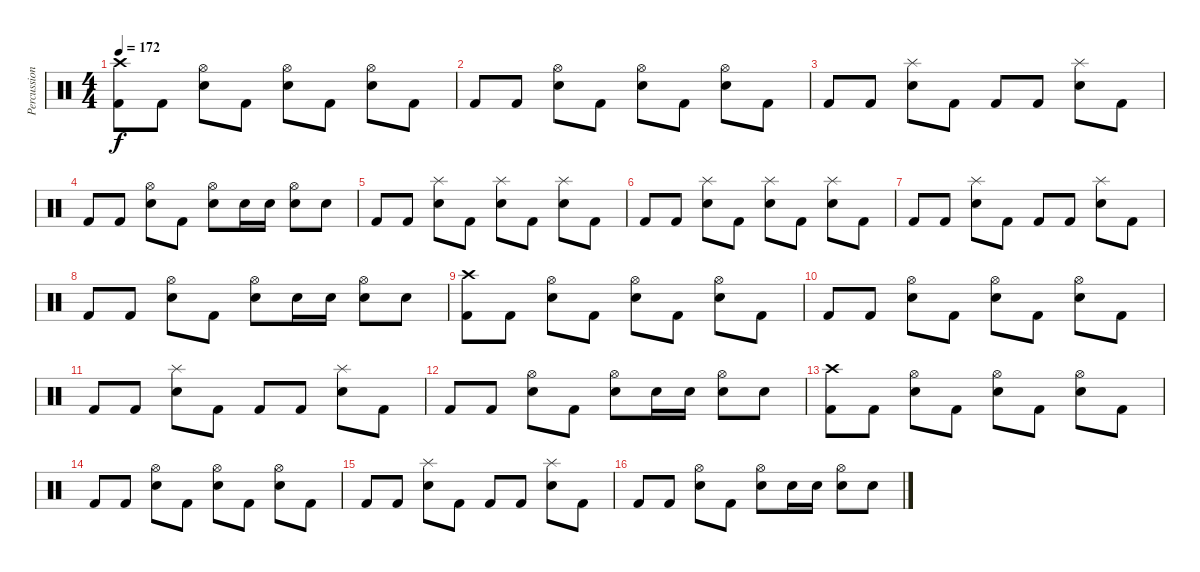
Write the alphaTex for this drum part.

\track ("Percussion" "Percussion") {instrument percussion}
\staff {score}
\articulation defaults
\ts (4 4)
\tempo 172
\clef neutral
\ks c
("Crash high (hit)" "Kick (hit) 2").8{dy f} "Kick (hit) 2".8 ("Hi-Hat (open)" "Electric Snare (hit)").8 "Kick (hit) 2".8 ("Hi-Hat (open)" "Electric Snare (hit)").8 "Kick (hit) 2".8 ("Hi-Hat (open)" "Electric Snare (hit)").8 "Kick (hit) 2".8 |
"Kick (hit) 2".8 "Kick (hit) 2".8 ("Hi-Hat (open)" "Electric Snare (hit)").8 "Kick (hit) 2".8 ("Hi-Hat (open)" "Electric Snare (hit)").8 "Kick (hit) 2".8 ("Hi-Hat (open)" "Electric Snare (hit)").8 "Kick (hit) 2".8 |
"Kick (hit) 2".8 "Kick (hit) 2".8 ("Splash (hit)" "Electric Snare (hit)").8 "Kick (hit) 2".8 "Kick (hit) 2".8 "Kick (hit) 2".8 ("Splash (hit)" "Electric Snare (hit)").8 "Kick (hit) 2".8 |
"Kick (hit) 2".8 "Kick (hit) 2".8 ("Hi-Hat (open)" "Electric Snare (hit)").8 "Kick (hit) 2".8 ("Hi-Hat (open)" "Electric Snare (hit)").8 "Electric Snare (hit)".16 "Electric Snare (hit)".16 ("Hi-Hat (open)" "Electric Snare (hit)").8 "Electric Snare (hit)".8 |
"Kick (hit) 2".8 "Kick (hit) 2".8 ("Splash (hit)" "Electric Snare (hit)").8 "Kick (hit) 2".8 ("Splash (hit)" "Electric Snare (hit)").8 "Kick (hit) 2".8 ("Splash (hit)" "Electric Snare (hit)").8 "Kick (hit) 2".8 |
"Kick (hit) 2".8 "Kick (hit) 2".8 ("Splash (hit)" "Electric Snare (hit)").8 "Kick (hit) 2".8 ("Splash (hit)" "Electric Snare (hit)").8 "Kick (hit) 2".8 ("Splash (hit)" "Electric Snare (hit)").8 "Kick (hit) 2".8 |
"Kick (hit) 2".8 "Kick (hit) 2".8 ("Splash (hit)" "Electric Snare (hit)").8 "Kick (hit) 2".8 "Kick (hit) 2".8 "Kick (hit) 2".8 ("Splash (hit)" "Electric Snare (hit)").8 "Kick (hit) 2".8 |
"Kick (hit) 2".8 "Kick (hit) 2".8 ("Hi-Hat (open)" "Electric Snare (hit)").8 "Kick (hit) 2".8 ("Hi-Hat (open)" "Electric Snare (hit)").8 "Electric Snare (hit)".16 "Electric Snare (hit)".16 ("Hi-Hat (open)" "Electric Snare (hit)").8 "Electric Snare (hit)".8 |
("Crash high (hit)" "Kick (hit) 2").8 "Kick (hit) 2".8 ("Hi-Hat (open)" "Electric Snare (hit)").8 "Kick (hit) 2".8 ("Hi-Hat (open)" "Electric Snare (hit)").8 "Kick (hit) 2".8 ("Hi-Hat (open)" "Electric Snare (hit)").8 "Kick (hit) 2".8 |
"Kick (hit) 2".8 "Kick (hit) 2".8 ("Hi-Hat (open)" "Electric Snare (hit)").8 "Kick (hit) 2".8 ("Hi-Hat (open)" "Electric Snare (hit)").8 "Kick (hit) 2".8 ("Hi-Hat (open)" "Electric Snare (hit)").8 "Kick (hit) 2".8 |
"Kick (hit) 2".8 "Kick (hit) 2".8 ("Splash (hit)" "Electric Snare (hit)").8 "Kick (hit) 2".8 "Kick (hit) 2".8 "Kick (hit) 2".8 ("Splash (hit)" "Electric Snare (hit)").8 "Kick (hit) 2".8 |
"Kick (hit) 2".8 "Kick (hit) 2".8 ("Hi-Hat (open)" "Electric Snare (hit)").8 "Kick (hit) 2".8 ("Hi-Hat (open)" "Electric Snare (hit)").8 "Electric Snare (hit)".16 "Electric Snare (hit)".16 ("Hi-Hat (open)" "Electric Snare (hit)").8 "Electric Snare (hit)".8 |
("Crash high (hit)" "Kick (hit) 2").8 "Kick (hit) 2".8 ("Hi-Hat (open)" "Electric Snare (hit)").8 "Kick (hit) 2".8 ("Hi-Hat (open)" "Electric Snare (hit)").8 "Kick (hit) 2".8 ("Hi-Hat (open)" "Electric Snare (hit)").8 "Kick (hit) 2".8 |
"Kick (hit) 2".8 "Kick (hit) 2".8 ("Hi-Hat (open)" "Electric Snare (hit)").8 "Kick (hit) 2".8 ("Hi-Hat (open)" "Electric Snare (hit)").8 "Kick (hit) 2".8 ("Hi-Hat (open)" "Electric Snare (hit)").8 "Kick (hit) 2".8 |
"Kick (hit) 2".8 "Kick (hit) 2".8 ("Splash (hit)" "Electric Snare (hit)").8 "Kick (hit) 2".8 "Kick (hit) 2".8 "Kick (hit) 2".8 ("Splash (hit)" "Electric Snare (hit)").8 "Kick (hit) 2".8 |
"Kick (hit) 2".8 "Kick (hit) 2".8 ("Hi-Hat (open)" "Electric Snare (hit)").8 "Kick (hit) 2".8 ("Hi-Hat (open)" "Electric Snare (hit)").8 "Electric Snare (hit)".16 "Electric Snare (hit)".16 ("Hi-Hat (open)" "Electric Snare (hit)").8 "Electric Snare (hit)".8
